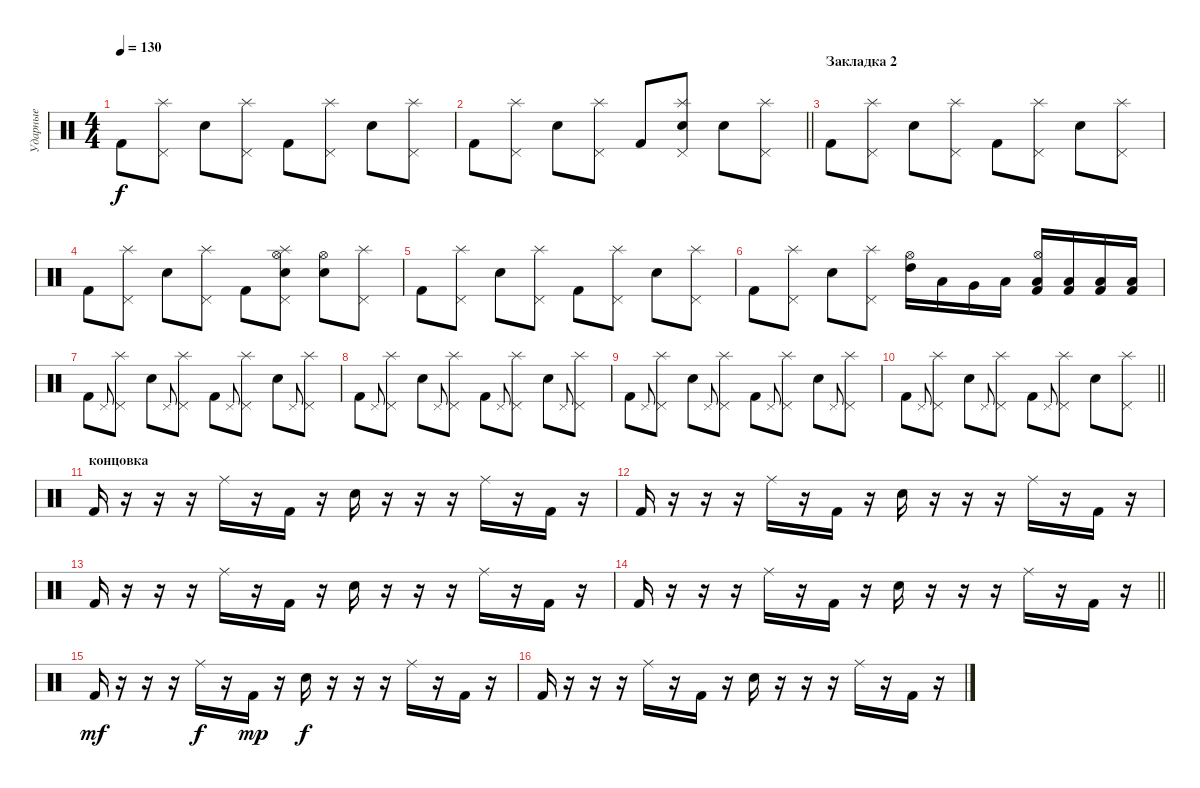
\track ("Ударные" "Ударные") {instrument percussion}
\staff {score}
\articulation defaults
\ts (4 4)
\section ("" "")
\tempo 130
\clef neutral
\ks c "Kick (hit) 2".8{dy f}
("Pedal Hi-Hat (hit)" "Splash (hit)").8 "Electric Snare (hit)".8 ("Pedal Hi-Hat (hit)" "Splash (hit)").8 "Kick (hit) 2".8 ("Pedal Hi-Hat (hit)" "Splash (hit)").8 "Electric Snare (hit)".8 ("Pedal Hi-Hat (hit)" "Splash (hit)").8 |
\barLineRight lightlight "Kick (hit) 2".8
("Splash (hit)" "Pedal Hi-Hat (hit)").8 "Electric Snare (hit)".8 ("Splash (hit)" "Pedal Hi-Hat (hit)").8 "Kick (hit) 2".8 ("Splash (hit)" "Pedal Hi-Hat (hit)" "Electric Snare (hit)").8 "Electric Snare (hit)".8 ("Splash (hit)" "Pedal Hi-Hat (hit)").8 |
\section ("" "Закладка 2")
"Kick (hit) 2".8 ("Pedal Hi-Hat (hit)" "Splash (hit)").8 "Snare (hit) 2".8 ("Pedal Hi-Hat (hit)" "Splash (hit)").8 "Kick (hit) 2".8 ("Pedal Hi-Hat (hit)" "Splash (hit)").8 "Snare (hit) 2".8 ("Pedal Hi-Hat (hit)" "Splash (hit)").8 |
"Kick (hit) 2".8 ("Splash (hit)" "Pedal Hi-Hat (hit)").8 "Snare (hit) 2".8 ("Splash (hit)" "Pedal Hi-Hat (hit)").8 "Kick (hit) 2".8 ("Splash (hit)" "Pedal Hi-Hat (hit)" "Hi-Hat (open)" "Snare (hit) 2").8 ("Hi-Hat (open)" "Snare (hit) 2").8 ("Splash (hit)" "Pedal Hi-Hat (hit)").8 |
"Kick (hit) 2".8 ("Pedal Hi-Hat (hit)" "Splash (hit)").8 "Snare (hit) 2".8 ("Pedal Hi-Hat (hit)" "Splash (hit)").8 "Kick (hit) 2".8 ("Pedal Hi-Hat (hit)" "Splash (hit)").8 "Snare (hit) 2".8 ("Pedal Hi-Hat (hit)" "Splash (hit)").8 |
"Kick (hit) 2".8 ("Splash (hit)" "Pedal Hi-Hat (hit)").8 "Snare (hit) 2".8 ("Splash (hit)" "Pedal Hi-Hat (hit)").8 ("Hi-Hat (open)" "High Tom (hit)").16 "Low Tom (hit)".16 "Very Low Tom (hit)".16 "Low Floor Tom (hit)".16 ("Hi-Hat (open)" "Low Floor Tom (hit)" "Kick (hit) 2").16 ("Low Floor Tom (hit)" "Kick (hit) 2").16 ("Low Floor Tom (hit)" "Kick (hit) 2").16 ("Low Floor Tom (hit)" "Kick (hit) 2").16 |
"Kick (hit) 2".8 "Pedal Hi-Hat (hit)".8{gr onbeat} ("Pedal Hi-Hat (hit)" "Splash (hit)").8 "Snare (hit) 2".8 "Pedal Hi-Hat (hit)".8{gr onbeat} ("Pedal Hi-Hat (hit)" "Splash (hit)").8 "Kick (hit) 2".8 "Pedal Hi-Hat (hit)".8{gr onbeat} ("Pedal Hi-Hat (hit)" "Splash (hit)").8 "Snare (hit) 2".8 "Pedal Hi-Hat (hit)".8{gr onbeat} ("Pedal Hi-Hat (hit)" "Splash (hit)").8 |
"Kick (hit) 2".8 "Pedal Hi-Hat (hit)".8{gr onbeat} ("Pedal Hi-Hat (hit)" "Splash (hit)").8 "Snare (hit) 2".8 "Pedal Hi-Hat (hit)".8{gr onbeat} ("Pedal Hi-Hat (hit)" "Splash (hit)").8 "Kick (hit) 2".8 "Pedal Hi-Hat (hit)".8{gr onbeat} ("Pedal Hi-Hat (hit)" "Splash (hit)").8 "Snare (hit) 2".8 "Pedal Hi-Hat (hit)".8{gr onbeat} ("Pedal Hi-Hat (hit)" "Splash (hit)").8 |
"Kick (hit) 2".8 "Pedal Hi-Hat (hit)".8{gr onbeat} ("Pedal Hi-Hat (hit)" "Splash (hit)").8 "Snare (hit) 2".8 "Pedal Hi-Hat (hit)".8{gr onbeat} ("Pedal Hi-Hat (hit)" "Splash (hit)").8 "Kick (hit) 2".8 "Pedal Hi-Hat (hit)".8{gr onbeat} ("Pedal Hi-Hat (hit)" "Splash (hit)").8 "Snare (hit) 2".8 "Pedal Hi-Hat (hit)".8{gr onbeat} ("Pedal Hi-Hat (hit)" "Splash (hit)").8 |
\barLineRight lightlight "Kick (hit) 2".8 "Pedal Hi-Hat (hit)".8{gr onbeat}
("Pedal Hi-Hat (hit)" "Splash (hit)").8 "Snare (hit) 2".8 "Pedal Hi-Hat (hit)".8{gr onbeat} ("Pedal Hi-Hat (hit)" "Splash (hit)").8 "Kick (hit) 2".8 "Pedal Hi-Hat (hit)".8{gr onbeat} ("Pedal Hi-Hat (hit)" "Splash (hit)").8 "Snare (hit) 2".8 ("Pedal Hi-Hat (hit)" "Splash (hit)").8 |
\section ("" "концовка")
"Kick (hit) 2".16 r.16 r.16 r.16 "Ride (middle)".16 r.16 "Kick (hit) 2".16 r.16 "Electric Snare (hit)".16 r.16 r.16 r.16 "Ride (middle)".16 r.16 "Kick (hit) 2".16 r.16 |
"Kick (hit) 2".16 r.16 r.16 r.16 "Ride (middle)".16 r.16 "Kick (hit) 2".16 r.16 "Electric Snare (hit)".16 r.16 r.16 r.16 "Ride (middle)".16 r.16 "Kick (hit) 2".16 r.16 |
"Kick (hit) 2".16 r.16 r.16 r.16 "Ride (middle)".16 r.16 "Kick (hit) 2".16 r.16 "Electric Snare (hit)".16 r.16 r.16 r.16 "Ride (middle)".16 r.16 "Kick (hit) 2".16 r.16 |
\barLineRight lightlight "Kick (hit) 2".16
r.16 r.16 r.16 "Ride (middle)".16 r.16 "Kick (hit) 2".16 r.16 "Electric Snare (hit)".16 r.16 r.16 r.16 "Ride (middle)".16 r.16 "Kick (hit) 2".16 r.16 |
"Kick (hit) 2".16{dy mf} r.16 r.16 r.16 "Ride (middle)".16{dy f} r.16 "Kick (hit) 2".16{dy mp} r.16 "Electric Snare (hit)".16{dy f} r.16 r.16 r.16 "Ride (middle)".16 r.16 "Kick (hit) 2".16 r.16 |
"Kick (hit) 2".16 r.16 r.16 r.16 "Ride (middle)".16 r.16 "Kick (hit) 2".16 r.16 "Electric Snare (hit)".16 r.16 r.16 r.16 "Ride (middle)".16 r.16 "Kick (hit) 2".16 r.16
